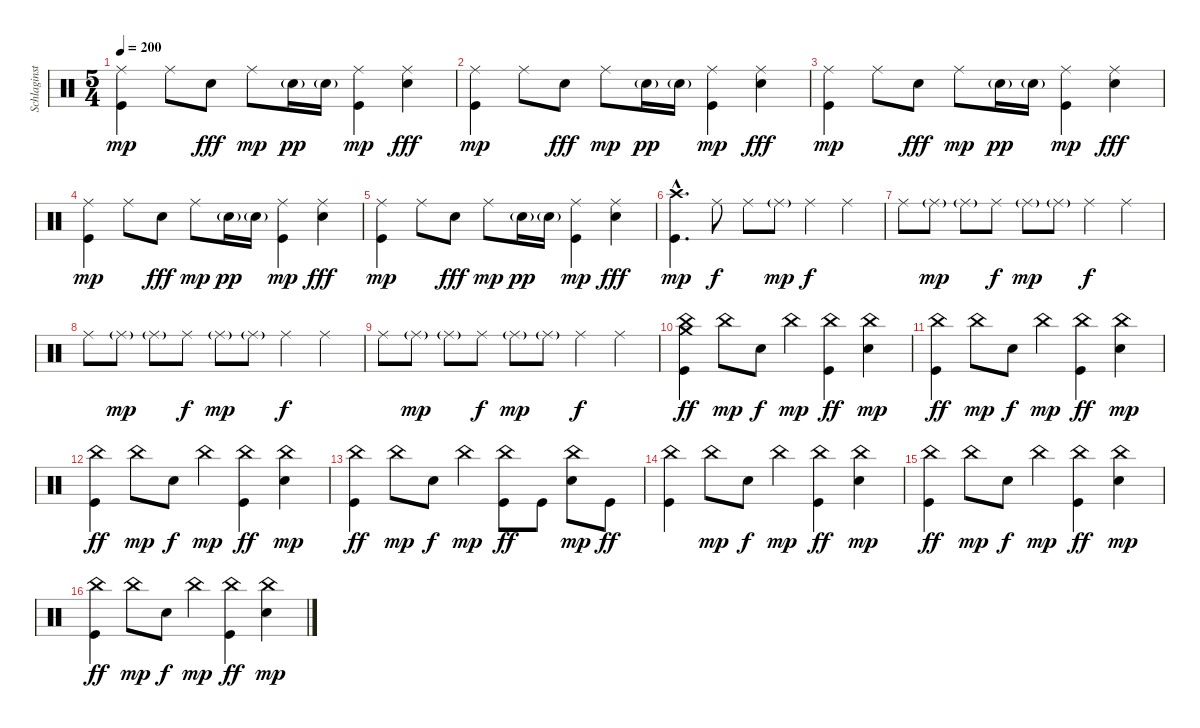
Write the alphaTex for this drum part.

\track ("Schlaginstrumente - Auswahl" "Schlaginst") {instrument percussion}
\staff {score}
\articulation defaults
\ts (5 4)
\tempo 200
\clef neutral
\ks c
("Ride (middle)" "Kick (hit)").4{dy mp} "Ride (middle)".8 "Snare (hit) 2".8{dy fff} "Ride (middle)".8{dy mp} "Snare (hit) 2"{g}.16{dy pp} "Snare (hit) 2"{g}.16 ("Ride (middle)" "Kick (hit)").4{dy mp} ("Ride (middle)" "Snare (hit) 2").4{dy fff} |
("Ride (middle)" "Kick (hit)").4{dy mp} "Ride (middle)".8 "Snare (hit) 2".8{dy fff} "Ride (middle)".8{dy mp} "Snare (hit) 2"{g}.16{dy pp} "Snare (hit) 2"{g}.16 ("Ride (middle)" "Kick (hit)").4{dy mp} ("Ride (middle)" "Snare (hit) 2").4{dy fff} |
("Ride (middle)" "Kick (hit)").4{dy mp} "Ride (middle)".8 "Snare (hit) 2".8{dy fff} "Ride (middle)".8{dy mp} "Snare (hit) 2"{g}.16{dy pp} "Snare (hit) 2"{g}.16 ("Ride (middle)" "Kick (hit)").4{dy mp} ("Ride (middle)" "Snare (hit) 2").4{dy fff} |
("Ride (middle)" "Kick (hit)").4{dy mp} "Ride (middle)".8 "Snare (hit) 2".8{dy fff} "Ride (middle)".8{dy mp} "Snare (hit) 2"{g}.16{dy pp} "Snare (hit) 2"{g}.16 ("Ride (middle)" "Kick (hit)").4{dy mp} ("Ride (middle)" "Snare (hit) 2").4{dy fff} |
("Ride (middle)" "Kick (hit)").4{dy mp} "Ride (middle)".8 "Snare (hit) 2".8{dy fff} "Ride (middle)".8{dy mp} "Snare (hit) 2"{g}.16{dy pp} "Snare (hit) 2"{g}.16 ("Ride (middle)" "Kick (hit)").4{dy mp} ("Ride (middle)" "Snare (hit) 2").4{dy fff} |
("Crash high (hit)"{hac} "Kick (hit)"{hac}).4{d dy mp} "Ride (middle)".8{dy f} "Ride (middle)".8 "Ride (middle)"{g}.8{dy mp} "Ride (middle)".4{dy f} "Ride (middle)".4 |
"Ride (middle)".8 "Ride (middle)"{g}.8{dy mp} "Ride (middle)"{g}.8 "Ride (middle)".8{dy f} "Ride (middle)"{g}.8{dy mp} "Ride (middle)"{g}.8 "Ride (middle)".4{dy f} "Ride (middle)".4 |
"Ride (middle)".8 "Ride (middle)"{g}.8{dy mp} "Ride (middle)"{g}.8 "Ride (middle)".8{dy f} "Ride (middle)"{g}.8{dy mp} "Ride (middle)"{g}.8 "Ride (middle)".4{dy f} "Ride (middle)".4 |
"Ride (middle)".8 "Ride (middle)"{g}.8{dy mp} "Ride (middle)"{g}.8 "Ride (middle)".8{dy f} "Ride (middle)"{g}.8{dy mp} "Ride (middle)"{g}.8 "Ride (middle)".4{dy f} "Ride (middle)".4 |
("Crash medium (hit)" "China (hit)" "Kick (hit)").4{dy ff} "China (hit)".8{dy mp} "Electric Snare (hit)".8{dy f} "China (hit)".4{dy mp} ("China (hit)" "Kick (hit)").4{dy ff} ("China (hit)" "Electric Snare (hit)").4{dy mp} |
("China (hit)" "Kick (hit)").4{dy ff} "China (hit)".8{dy mp} "Electric Snare (hit)".8{dy f} "China (hit)".4{dy mp} ("China (hit)" "Kick (hit)").4{dy ff} ("China (hit)" "Electric Snare (hit)").4{dy mp} |
("China (hit)" "Kick (hit)").4{dy ff} "China (hit)".8{dy mp} "Electric Snare (hit)".8{dy f} "China (hit)".4{dy mp} ("China (hit)" "Kick (hit)").4{dy ff} ("China (hit)" "Electric Snare (hit)").4{dy mp} |
("China (hit)" "Kick (hit)").4{dy ff} "China (hit)".8{dy mp} "Electric Snare (hit)".8{dy f} "China (hit)".4{dy mp} ("China (hit)" "Kick (hit)").8{dy ff} "Kick (hit)".8 ("China (hit)" "Electric Snare (hit)").8{dy mp} "Kick (hit)".8{dy ff} |
("China (hit)" "Kick (hit)").4 "China (hit)".8{dy mp} "Electric Snare (hit)".8{dy f} "China (hit)".4{dy mp} ("China (hit)" "Kick (hit)").4{dy ff} ("China (hit)" "Electric Snare (hit)").4{dy mp} |
("China (hit)" "Kick (hit)").4{dy ff} "China (hit)".8{dy mp} "Electric Snare (hit)".8{dy f} "China (hit)".4{dy mp} ("China (hit)" "Kick (hit)").4{dy ff} ("China (hit)" "Electric Snare (hit)").4{dy mp} |
("China (hit)" "Kick (hit)").4{dy ff} "China (hit)".8{dy mp} "Electric Snare (hit)".8{dy f} "China (hit)".4{dy mp} ("China (hit)" "Kick (hit)").4{dy ff} ("China (hit)" "Electric Snare (hit)").4{dy mp}
